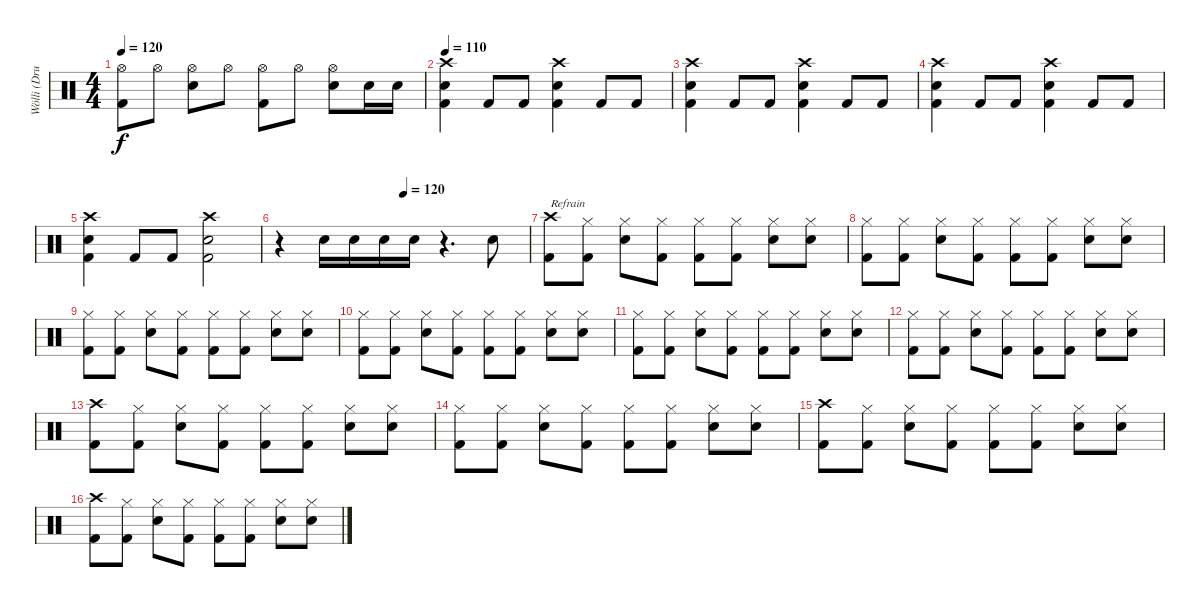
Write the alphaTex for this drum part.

\track ("Wölli (Drums)" "Wölli (Dru") {instrument percussion}
\staff {score}
\articulation defaults
\ts (4 4)
\tempo 120
\clef neutral
\ks c
("Hi-Hat (open)" "Kick (hit) 2").8{dy f} "Hi-Hat (open)".8 ("Hi-Hat (open)" "Snare (hit) 2").8 "Hi-Hat (open)".8 ("Hi-Hat (open)" "Kick (hit) 2").8 "Hi-Hat (open)".8 ("Hi-Hat (open)" "Snare (hit) 2").8 "Snare (hit) 2".16 "Snare (hit) 2".16 |
\tempo 110
("Crash high (hit)" "Snare (hit) 2" "Kick (hit) 2").4 "Kick (hit) 2".8 "Kick (hit) 2".8 ("Crash high (hit)" "Snare (hit) 2" "Kick (hit) 2").4 "Kick (hit) 2".8 "Kick (hit) 2".8 |
("Crash high (hit)" "Snare (hit) 2" "Kick (hit) 2").4 "Kick (hit) 2".8 "Kick (hit) 2".8 ("Crash high (hit)" "Snare (hit) 2" "Kick (hit) 2").4 "Kick (hit) 2".8 "Kick (hit) 2".8 |
("Crash high (hit)" "Snare (hit) 2" "Kick (hit) 2").4 "Kick (hit) 2".8 "Kick (hit) 2".8 ("Crash high (hit)" "Snare (hit) 2" "Kick (hit) 2").4 "Kick (hit) 2".8 "Kick (hit) 2".8 |
("Crash high (hit)" "Snare (hit) 2" "Kick (hit) 2").4 "Kick (hit) 2".8 "Kick (hit) 2".8 ("Crash high (hit)" "Snare (hit) 2" "Kick (hit) 2").2 |
\tempo (120 0.5)
r.4 "Snare (hit) 2".16 "Snare (hit) 2".16 "Snare (hit) 2".16 "Snare (hit) 2".16 r.4{d} "Snare (hit) 2".8 |
("Crash high (hit)" "Kick (hit) 2").8{txt "Refrain"} ("Hi-Hat (closed)" "Kick (hit) 2").8 ("Hi-Hat (closed)" "Snare (hit) 2").8 ("Hi-Hat (closed)" "Kick (hit) 2").8 ("Hi-Hat (closed)" "Kick (hit) 2").8 ("Hi-Hat (closed)" "Kick (hit) 2").8 ("Hi-Hat (closed)" "Snare (hit) 2").8 ("Hi-Hat (closed)" "Snare (hit) 2").8 |
("Hi-Hat (closed)" "Kick (hit) 2").8 ("Hi-Hat (closed)" "Kick (hit) 2").8 ("Hi-Hat (closed)" "Snare (hit) 2").8 ("Hi-Hat (closed)" "Kick (hit) 2").8 ("Hi-Hat (closed)" "Kick (hit) 2").8 ("Hi-Hat (closed)" "Kick (hit) 2").8 ("Hi-Hat (closed)" "Snare (hit) 2").8 ("Hi-Hat (closed)" "Snare (hit) 2").8 |
("Hi-Hat (closed)" "Kick (hit) 2").8 ("Hi-Hat (closed)" "Kick (hit) 2").8 ("Hi-Hat (closed)" "Snare (hit) 2").8 ("Hi-Hat (closed)" "Kick (hit) 2").8 ("Hi-Hat (closed)" "Kick (hit) 2").8 ("Hi-Hat (closed)" "Kick (hit) 2").8 ("Hi-Hat (closed)" "Snare (hit) 2").8 ("Hi-Hat (closed)" "Snare (hit) 2").8 |
("Hi-Hat (closed)" "Kick (hit) 2").8 ("Hi-Hat (closed)" "Kick (hit) 2").8 ("Hi-Hat (closed)" "Snare (hit) 2").8 ("Hi-Hat (closed)" "Kick (hit) 2").8 ("Hi-Hat (closed)" "Kick (hit) 2").8 ("Hi-Hat (closed)" "Kick (hit) 2").8 ("Hi-Hat (closed)" "Snare (hit) 2").8 ("Hi-Hat (closed)" "Snare (hit) 2").8 |
("Hi-Hat (closed)" "Kick (hit) 2").8 ("Hi-Hat (closed)" "Kick (hit) 2").8 ("Hi-Hat (closed)" "Snare (hit) 2").8 ("Hi-Hat (closed)" "Kick (hit) 2").8 ("Hi-Hat (closed)" "Kick (hit) 2").8 ("Hi-Hat (closed)" "Kick (hit) 2").8 ("Hi-Hat (closed)" "Snare (hit) 2").8 ("Hi-Hat (closed)" "Snare (hit) 2").8 |
("Hi-Hat (closed)" "Kick (hit) 2").8 ("Hi-Hat (closed)" "Kick (hit) 2").8 ("Hi-Hat (closed)" "Snare (hit) 2").8 ("Hi-Hat (closed)" "Kick (hit) 2").8 ("Hi-Hat (closed)" "Kick (hit) 2").8 ("Hi-Hat (closed)" "Kick (hit) 2").8 ("Hi-Hat (closed)" "Snare (hit) 2").8 ("Hi-Hat (closed)" "Snare (hit) 2").8 |
("Crash high (hit)" "Kick (hit) 2").8 ("Hi-Hat (closed)" "Kick (hit) 2").8 ("Hi-Hat (closed)" "Snare (hit) 2").8 ("Hi-Hat (closed)" "Kick (hit) 2").8 ("Hi-Hat (closed)" "Kick (hit) 2").8 ("Hi-Hat (closed)" "Kick (hit) 2").8 ("Hi-Hat (closed)" "Snare (hit) 2").8 ("Hi-Hat (closed)" "Snare (hit) 2").8 |
("Hi-Hat (closed)" "Kick (hit) 2").8 ("Hi-Hat (closed)" "Kick (hit) 2").8 ("Hi-Hat (closed)" "Snare (hit) 2").8 ("Hi-Hat (closed)" "Kick (hit) 2").8 ("Hi-Hat (closed)" "Kick (hit) 2").8 ("Hi-Hat (closed)" "Kick (hit) 2").8 ("Hi-Hat (closed)" "Snare (hit) 2").8 ("Hi-Hat (closed)" "Snare (hit) 2").8 |
("Crash high (hit)" "Kick (hit) 2").8 ("Hi-Hat (closed)" "Kick (hit) 2").8 ("Hi-Hat (closed)" "Snare (hit) 2").8 ("Hi-Hat (closed)" "Kick (hit) 2").8 ("Hi-Hat (closed)" "Kick (hit) 2").8 ("Hi-Hat (closed)" "Kick (hit) 2").8 ("Hi-Hat (closed)" "Snare (hit) 2").8 ("Hi-Hat (closed)" "Snare (hit) 2").8 |
("Crash high (hit)" "Kick (hit) 2").8 ("Hi-Hat (closed)" "Kick (hit) 2").8 ("Hi-Hat (closed)" "Snare (hit) 2").8 ("Hi-Hat (closed)" "Kick (hit) 2").8 ("Hi-Hat (closed)" "Kick (hit) 2").8 ("Hi-Hat (closed)" "Kick (hit) 2").8 ("Hi-Hat (closed)" "Snare (hit) 2").8 ("Hi-Hat (closed)" "Snare (hit) 2").8
